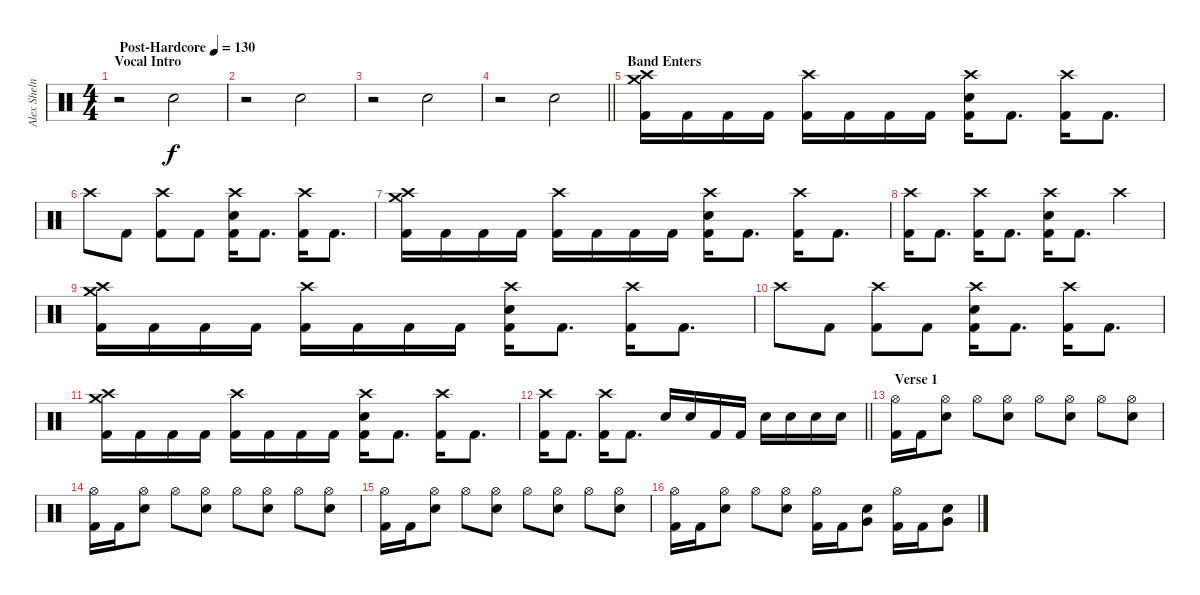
\track ("Alex Shelnutt [Drums]" "Alex Sheln") {instrument percussion}
\staff {score}
\articulation defaults
\ts (4 4)
\section ("" "Vocal Intro")
\tempo (130 "Post-Hardcore")
\clef neutral
\ks c
r.2{dy f} "Hand Clap (hit)".2 |
r.2 "Hand Clap (hit)".2 |
r.2 "Hand Clap (hit)".2 |
\barLineRight lightlight
r.2 "Hand Clap (hit)".2 |
\section ("" "Band Enters")
("Crash high (hit)" "Crash medium (hit)" "Kick (hit) 2").16 "Kick (hit) 2".16 "Kick (hit) 2".16 "Kick (hit) 2".16 ("Crash high (hit)" "Kick (hit) 2").16 "Kick (hit) 2".16 "Kick (hit) 2".16 "Kick (hit) 2".16 ("Crash high (hit)" "Electric Snare (hit)" "Kick (hit) 2").16 "Kick (hit) 2".8{d} ("Crash high (hit)" "Kick (hit) 2").16 "Kick (hit) 2".8{d} |
"Crash high (hit)".8 "Kick (hit) 2".8 ("Crash high (hit)" "Kick (hit) 2").8 "Kick (hit) 2".8 ("Crash high (hit)" "Electric Snare (hit)" "Kick (hit) 2").16 "Kick (hit) 2".8{d} ("Crash high (hit)" "Kick (hit) 2").16 "Kick (hit) 2".8{d} |
("Crash high (hit)" "Crash medium (hit)" "Kick (hit) 2").16 "Kick (hit) 2".16 "Kick (hit) 2".16 "Kick (hit) 2".16 ("Crash high (hit)" "Kick (hit) 2").16 "Kick (hit) 2".16 "Kick (hit) 2".16 "Kick (hit) 2".16 ("Crash high (hit)" "Electric Snare (hit)" "Kick (hit) 2").16 "Kick (hit) 2".8{d} ("Crash high (hit)" "Kick (hit) 2").16 "Kick (hit) 2".8{d} |
("Crash high (hit)" "Kick (hit) 2").16 "Kick (hit) 2".8{d} ("Crash high (hit)" "Kick (hit) 2").16 "Kick (hit) 2".8{d} ("Crash high (hit)" "Electric Snare (hit)" "Kick (hit) 2").16 "Kick (hit) 2".8{d} "Crash high (hit)".4 |
("Crash high (hit)" "Crash medium (hit)" "Kick (hit) 2").16 "Kick (hit) 2".16 "Kick (hit) 2".16 "Kick (hit) 2".16 ("Crash high (hit)" "Kick (hit) 2").16 "Kick (hit) 2".16 "Kick (hit) 2".16 "Kick (hit) 2".16 ("Crash high (hit)" "Electric Snare (hit)" "Kick (hit) 2").16 "Kick (hit) 2".8{d} ("Crash high (hit)" "Kick (hit) 2").16 "Kick (hit) 2".8{d} |
"Crash high (hit)".8 "Kick (hit) 2".8 ("Crash high (hit)" "Kick (hit) 2").8 "Kick (hit) 2".8 ("Crash high (hit)" "Electric Snare (hit)" "Kick (hit) 2").16 "Kick (hit) 2".8{d} ("Crash high (hit)" "Kick (hit) 2").16 "Kick (hit) 2".8{d} |
("Crash high (hit)" "Crash medium (hit)" "Kick (hit) 2").16 "Kick (hit) 2".16 "Kick (hit) 2".16 "Kick (hit) 2".16 ("Crash high (hit)" "Kick (hit) 2").16 "Kick (hit) 2".16 "Kick (hit) 2".16 "Kick (hit) 2".16 ("Crash high (hit)" "Electric Snare (hit)" "Kick (hit) 2").16 "Kick (hit) 2".8{d} ("Crash high (hit)" "Kick (hit) 2").16 "Kick (hit) 2".8{d} |
\barLineRight lightlight
("Crash high (hit)" "Kick (hit) 2").16 "Kick (hit) 2".8{d} ("Crash high (hit)" "Kick (hit) 2").16 "Kick (hit) 2".8{d} "Electric Snare (hit)".16 "Electric Snare (hit)".16 "Kick (hit) 2".16 "Kick (hit) 2".16 "Electric Snare (hit)".16 "Electric Snare (hit)".16 "Electric Snare (hit)".16 "Electric Snare (hit)".16 |
\section ("" " Verse 1")
("Hi-Hat (open)" "Kick (hit) 2").16 "Kick (hit) 2".16 ("Hi-Hat (open)" "Electric Snare (hit)").8 "Hi-Hat (open)".8 ("Hi-Hat (open)" "Electric Snare (hit)").8 "Hi-Hat (open)".8 ("Hi-Hat (open)" "Electric Snare (hit)").8 "Hi-Hat (open)".8 ("Hi-Hat (open)" "Electric Snare (hit)").8 |
("Hi-Hat (open)" "Kick (hit) 2").16 "Kick (hit) 2".16 ("Hi-Hat (open)" "Electric Snare (hit)").8 "Hi-Hat (open)".8 ("Hi-Hat (open)" "Electric Snare (hit)").8 "Hi-Hat (open)".8 ("Hi-Hat (open)" "Electric Snare (hit)").8 "Hi-Hat (open)".8 ("Hi-Hat (open)" "Electric Snare (hit)").8 |
("Hi-Hat (open)" "Kick (hit) 2").16 "Kick (hit) 2".16 ("Hi-Hat (open)" "Electric Snare (hit)").8 "Hi-Hat (open)".8 ("Hi-Hat (open)" "Electric Snare (hit)").8 "Hi-Hat (open)".8 ("Hi-Hat (open)" "Electric Snare (hit)").8 "Hi-Hat (open)".8 ("Hi-Hat (open)" "Electric Snare (hit)").8 |
("Hi-Hat (open)" "Kick (hit) 2").16 "Kick (hit) 2".16 ("Hi-Hat (open)" "Electric Snare (hit)").8 "Hi-Hat (open)".8 ("Hi-Hat (open)" "Electric Snare (hit)").8 ("Hi-Hat (open)" "Kick (hit) 2").16 "Kick (hit) 2".16 ("Very Low Tom (hit)" "Electric Snare (hit)").8 ("Hi-Hat (open)" "Kick (hit) 2").16 "Kick (hit) 2".16 ("Very Low Tom (hit)" "Electric Snare (hit)").8
